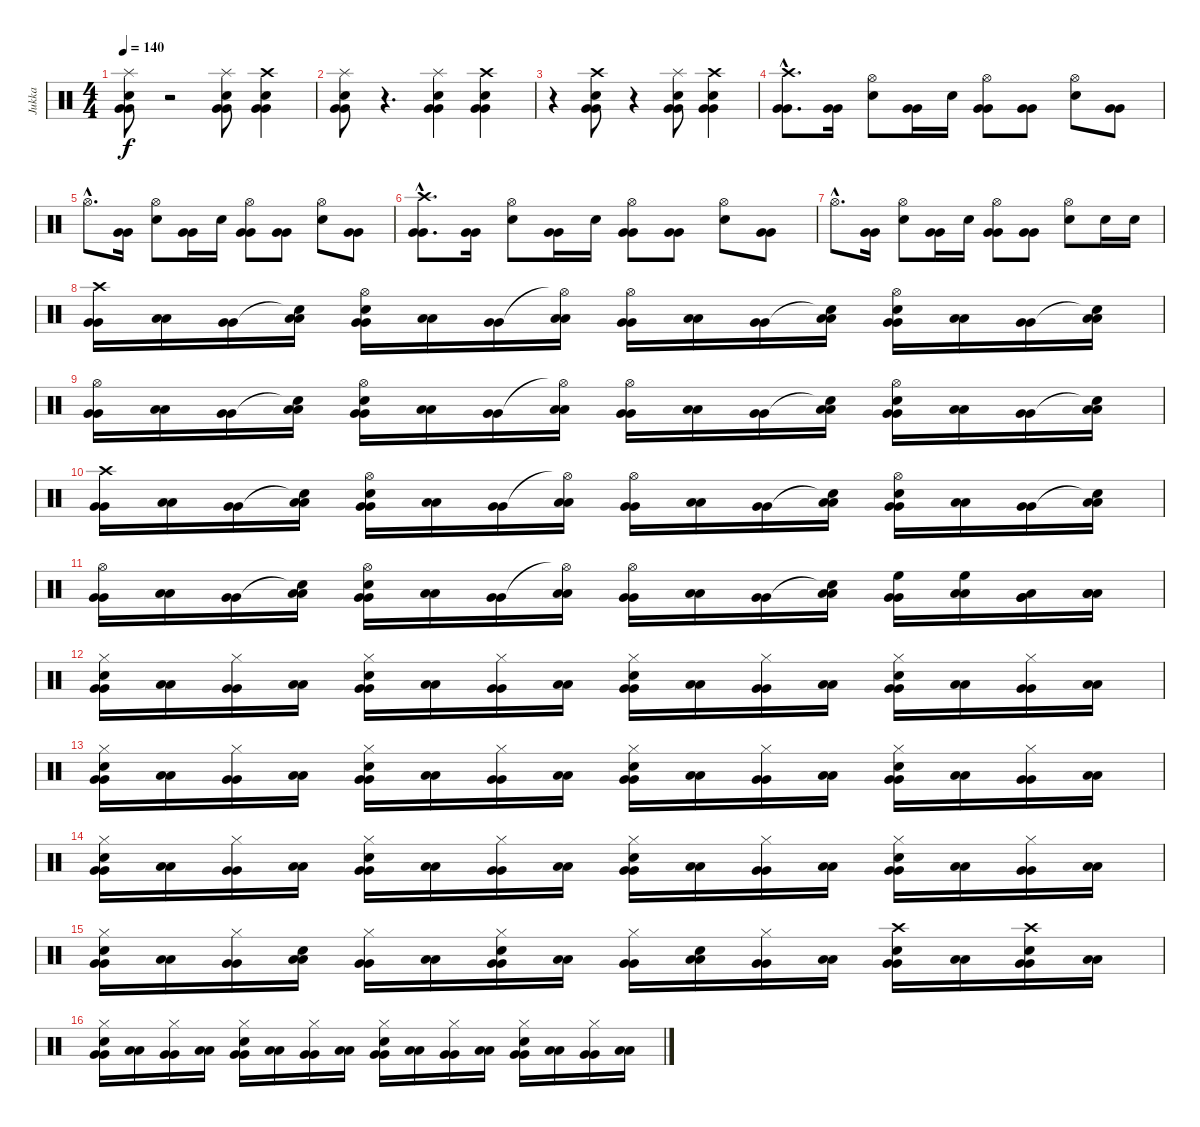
\track ("Jukka" "Jukka") {instrument percussion}
\staff {score}
\articulation defaults
\ts (4 4)
\tempo 140
\clef neutral
\ks c
("Splash (hit)" "Electric Snare (hit)" "Very Low Tom (hit)" "Very Low Tom (hit)").8{dy f} r.2 ("Splash (hit)" "Electric Snare (hit)" "Very Low Tom (hit)" "Very Low Tom (hit)").8 ("Crash high (hit)" "Electric Snare (hit)" "Very Low Tom (hit)" "Very Low Tom (hit)").4 |
("Splash (hit)" "Electric Snare (hit)" "Very Low Tom (hit)" "Very Low Tom (hit)").8 r.4{d} ("Splash (hit)" "Electric Snare (hit)" "Very Low Tom (hit)" "Very Low Tom (hit)").4 ("Crash high (hit)" "Electric Snare (hit)" "Very Low Tom (hit)" "Very Low Tom (hit)").4 |
r.4 ("Crash high (hit)" "Electric Snare (hit)" "Very Low Tom (hit)" "Very Low Tom (hit)").8 r.4 ("Splash (hit)" "Electric Snare (hit)" "Very Low Tom (hit)" "Very Low Tom (hit)").8 ("Crash high (hit)" "Electric Snare (hit)" "Very Low Tom (hit)" "Very Low Tom (hit)").4 |
("Crash high (hit)"{hac} "Very Low Tom (hit)"{hac} "Very Low Tom (hit)"{hac}).8{d} ("Very Low Tom (hit)" "Very Low Tom (hit)").16 ("Hi-Hat (open)" "Electric Snare (hit)").8 ("Very Low Tom (hit)" "Very Low Tom (hit)").16 "Electric Snare (hit)".16 ("Hi-Hat (open)" "Very Low Tom (hit)" "Very Low Tom (hit)").8 ("Very Low Tom (hit)" "Very Low Tom (hit)").8 ("Hi-Hat (open)" "Electric Snare (hit)").8 ("Very Low Tom (hit)" "Very Low Tom (hit)").8 |
"Hi-Hat (open)"{hac}.8{d} ("Very Low Tom (hit)" "Very Low Tom (hit)").16 ("Hi-Hat (open)" "Electric Snare (hit)").8 ("Very Low Tom (hit)" "Very Low Tom (hit)").16 "Electric Snare (hit)".16 ("Hi-Hat (open)" "Very Low Tom (hit)" "Very Low Tom (hit)").8 ("Very Low Tom (hit)" "Very Low Tom (hit)").8 ("Hi-Hat (open)" "Electric Snare (hit)").8 ("Very Low Tom (hit)" "Very Low Tom (hit)").8 |
("Crash high (hit)"{hac} "Very Low Tom (hit)"{hac} "Very Low Tom (hit)"{hac}).8{d} ("Very Low Tom (hit)" "Very Low Tom (hit)").16 ("Hi-Hat (open)" "Electric Snare (hit)").8 ("Very Low Tom (hit)" "Very Low Tom (hit)").16 "Electric Snare (hit)".16 ("Hi-Hat (open)" "Very Low Tom (hit)" "Very Low Tom (hit)").8 ("Very Low Tom (hit)" "Very Low Tom (hit)").8 ("Hi-Hat (open)" "Electric Snare (hit)").8 ("Very Low Tom (hit)" "Very Low Tom (hit)").8 |
"Hi-Hat (open)"{hac}.8{d} ("Very Low Tom (hit)" "Very Low Tom (hit)").16 ("Hi-Hat (open)" "Electric Snare (hit)").8 ("Very Low Tom (hit)" "Very Low Tom (hit)").16 "Electric Snare (hit)".16 ("Hi-Hat (open)" "Very Low Tom (hit)" "Very Low Tom (hit)").8 ("Very Low Tom (hit)" "Very Low Tom (hit)").8 ("Hi-Hat (open)" "Electric Snare (hit)").8 "Electric Snare (hit)".16 "Electric Snare (hit)".16 |
("Crash high (hit)" "Very Low Tom (hit)" "Very Low Tom (hit)").16 ("Low Floor Tom (hit)" "Low Floor Tom (hit)").16 ("Very Low Tom (hit)" "Very Low Tom (hit)").16 ("Snare (hit)"{t} "Low Floor Tom (hit)" "Low Floor Tom (hit)").16 ("Hi-Hat (open)" "Electric Snare (hit)" "Very Low Tom (hit)" "Very Low Tom (hit)").16 ("Low Floor Tom (hit)" "Low Floor Tom (hit)").16 ("Very Low Tom (hit)" "Very Low Tom (hit)").16 ("Hi-Hat (open)"{t} "Low Floor Tom (hit)" "Low Floor Tom (hit)").16 ("Hi-Hat (open)" "Very Low Tom (hit)" "Very Low Tom (hit)").16 ("Low Floor Tom (hit)" "Low Floor Tom (hit)").16 ("Very Low Tom (hit)" "Very Low Tom (hit)").16 ("Snare (hit)"{t} "Low Floor Tom (hit)" "Low Floor Tom (hit)").16 ("Hi-Hat (open)" "Electric Snare (hit)" "Very Low Tom (hit)" "Very Low Tom (hit)").16 ("Low Floor Tom (hit)" "Low Floor Tom (hit)").16 ("Very Low Tom (hit)" "Very Low Tom (hit)").16 ("Snare (hit)"{t} "Low Floor Tom (hit)" "Low Floor Tom (hit)").16 |
("Hi-Hat (open)" "Very Low Tom (hit)" "Very Low Tom (hit)").16 ("Low Floor Tom (hit)" "Low Floor Tom (hit)").16 ("Very Low Tom (hit)" "Very Low Tom (hit)").16 ("Snare (hit)"{t} "Low Floor Tom (hit)" "Low Floor Tom (hit)").16 ("Hi-Hat (open)" "Electric Snare (hit)" "Very Low Tom (hit)" "Very Low Tom (hit)").16 ("Low Floor Tom (hit)" "Low Floor Tom (hit)").16 ("Very Low Tom (hit)" "Very Low Tom (hit)").16 ("Hi-Hat (open)"{t} "Low Floor Tom (hit)" "Low Floor Tom (hit)").16 ("Hi-Hat (open)" "Very Low Tom (hit)" "Very Low Tom (hit)").16 ("Low Floor Tom (hit)" "Low Floor Tom (hit)").16 ("Very Low Tom (hit)" "Very Low Tom (hit)").16 ("Snare (hit)"{t} "Low Floor Tom (hit)" "Low Floor Tom (hit)").16 ("Hi-Hat (open)" "Electric Snare (hit)" "Very Low Tom (hit)" "Very Low Tom (hit)").16 ("Low Floor Tom (hit)" "Low Floor Tom (hit)").16 ("Very Low Tom (hit)" "Very Low Tom (hit)").16 ("Snare (hit)"{t} "Low Floor Tom (hit)" "Low Floor Tom (hit)").16 |
("Crash high (hit)" "Very Low Tom (hit)" "Very Low Tom (hit)").16 ("Low Floor Tom (hit)" "Low Floor Tom (hit)").16 ("Very Low Tom (hit)" "Very Low Tom (hit)").16 ("Snare (hit)"{t} "Low Floor Tom (hit)" "Low Floor Tom (hit)").16 ("Hi-Hat (open)" "Electric Snare (hit)" "Very Low Tom (hit)" "Very Low Tom (hit)").16 ("Low Floor Tom (hit)" "Low Floor Tom (hit)").16 ("Very Low Tom (hit)" "Very Low Tom (hit)").16 ("Hi-Hat (open)"{t} "Low Floor Tom (hit)" "Low Floor Tom (hit)").16 ("Hi-Hat (open)" "Very Low Tom (hit)" "Very Low Tom (hit)").16 ("Low Floor Tom (hit)" "Low Floor Tom (hit)").16 ("Very Low Tom (hit)" "Very Low Tom (hit)").16 ("Snare (hit)"{t} "Low Floor Tom (hit)" "Low Floor Tom (hit)").16 ("Hi-Hat (open)" "Electric Snare (hit)" "Very Low Tom (hit)" "Very Low Tom (hit)").16 ("Low Floor Tom (hit)" "Low Floor Tom (hit)").16 ("Very Low Tom (hit)" "Very Low Tom (hit)").16 ("Snare (hit)"{t} "Low Floor Tom (hit)" "Low Floor Tom (hit)").16 |
("Hi-Hat (open)" "Very Low Tom (hit)" "Very Low Tom (hit)").16 ("Low Floor Tom (hit)" "Low Floor Tom (hit)").16 ("Very Low Tom (hit)" "Very Low Tom (hit)").16 ("Snare (hit)"{t} "Low Floor Tom (hit)" "Low Floor Tom (hit)").16 ("Hi-Hat (open)" "Electric Snare (hit)" "Very Low Tom (hit)" "Very Low Tom (hit)").16 ("Low Floor Tom (hit)" "Low Floor Tom (hit)").16 ("Very Low Tom (hit)" "Very Low Tom (hit)").16 ("Hi-Hat (open)"{t} "Low Floor Tom (hit)" "Low Floor Tom (hit)").16 ("Hi-Hat (open)" "Very Low Tom (hit)" "Very Low Tom (hit)").16 ("Low Floor Tom (hit)" "Low Floor Tom (hit)").16 ("Very Low Tom (hit)" "Very Low Tom (hit)").16 ("Snare (hit)"{t} "Low Floor Tom (hit)" "Low Floor Tom (hit)").16 ("High Floor Tom (hit)" "Very Low Tom (hit)" "Very Low Tom (hit)").16 ("High Floor Tom (hit)" "Low Floor Tom (hit)" "Low Floor Tom (hit)").16 ("Low Tom (hit)" "Very Low Tom (hit)" "Very Low Tom (hit)").16 ("Low Tom (hit)" "Low Floor Tom (hit)" "Low Floor Tom (hit)").16 |
("Hi-Hat (closed)" "Electric Snare (hit)" "Very Low Tom (hit)" "Very Low Tom (hit)").16 ("Low Floor Tom (hit)" "Low Floor Tom (hit)").16 ("Hi-Hat (closed)" "Very Low Tom (hit)" "Very Low Tom (hit)").16 ("Low Floor Tom (hit)" "Low Floor Tom (hit)").16 ("Hi-Hat (closed)" "Electric Snare (hit)" "Very Low Tom (hit)" "Very Low Tom (hit)").16 ("Low Floor Tom (hit)" "Low Floor Tom (hit)").16 ("Hi-Hat (closed)" "Very Low Tom (hit)" "Very Low Tom (hit)").16 ("Low Floor Tom (hit)" "Low Floor Tom (hit)").16 ("Hi-Hat (closed)" "Electric Snare (hit)" "Very Low Tom (hit)" "Very Low Tom (hit)").16 ("Low Floor Tom (hit)" "Low Floor Tom (hit)").16 ("Hi-Hat (closed)" "Very Low Tom (hit)" "Very Low Tom (hit)").16 ("Low Floor Tom (hit)" "Low Floor Tom (hit)").16 ("Hi-Hat (closed)" "Electric Snare (hit)" "Very Low Tom (hit)" "Very Low Tom (hit)").16 ("Low Floor Tom (hit)" "Low Floor Tom (hit)").16 ("Hi-Hat (closed)" "Very Low Tom (hit)" "Very Low Tom (hit)").16 ("Low Floor Tom (hit)" "Low Floor Tom (hit)").16 |
("Hi-Hat (closed)" "Electric Snare (hit)" "Very Low Tom (hit)" "Very Low Tom (hit)").16 ("Low Floor Tom (hit)" "Low Floor Tom (hit)").16 ("Hi-Hat (closed)" "Very Low Tom (hit)" "Very Low Tom (hit)").16 ("Low Floor Tom (hit)" "Low Floor Tom (hit)").16 ("Hi-Hat (closed)" "Electric Snare (hit)" "Very Low Tom (hit)" "Very Low Tom (hit)").16 ("Low Floor Tom (hit)" "Low Floor Tom (hit)").16 ("Hi-Hat (closed)" "Very Low Tom (hit)" "Very Low Tom (hit)").16 ("Low Floor Tom (hit)" "Low Floor Tom (hit)").16 ("Hi-Hat (closed)" "Electric Snare (hit)" "Very Low Tom (hit)" "Very Low Tom (hit)").16 ("Low Floor Tom (hit)" "Low Floor Tom (hit)").16 ("Hi-Hat (closed)" "Very Low Tom (hit)" "Very Low Tom (hit)").16 ("Low Floor Tom (hit)" "Low Floor Tom (hit)").16 ("Hi-Hat (closed)" "Electric Snare (hit)" "Very Low Tom (hit)" "Very Low Tom (hit)").16 ("Low Floor Tom (hit)" "Low Floor Tom (hit)").16 ("Hi-Hat (closed)" "Very Low Tom (hit)" "Very Low Tom (hit)").16 ("Low Floor Tom (hit)" "Low Floor Tom (hit)").16 |
("Hi-Hat (closed)" "Electric Snare (hit)" "Very Low Tom (hit)" "Very Low Tom (hit)").16 ("Low Floor Tom (hit)" "Low Floor Tom (hit)").16 ("Hi-Hat (closed)" "Very Low Tom (hit)" "Very Low Tom (hit)").16 ("Low Floor Tom (hit)" "Low Floor Tom (hit)").16 ("Hi-Hat (closed)" "Electric Snare (hit)" "Very Low Tom (hit)" "Very Low Tom (hit)").16 ("Low Floor Tom (hit)" "Low Floor Tom (hit)").16 ("Hi-Hat (closed)" "Very Low Tom (hit)" "Very Low Tom (hit)").16 ("Low Floor Tom (hit)" "Low Floor Tom (hit)").16 ("Hi-Hat (closed)" "Electric Snare (hit)" "Very Low Tom (hit)" "Very Low Tom (hit)").16 ("Low Floor Tom (hit)" "Low Floor Tom (hit)").16 ("Hi-Hat (closed)" "Very Low Tom (hit)" "Very Low Tom (hit)").16 ("Low Floor Tom (hit)" "Low Floor Tom (hit)").16 ("Hi-Hat (closed)" "Electric Snare (hit)" "Very Low Tom (hit)" "Very Low Tom (hit)").16 ("Low Floor Tom (hit)" "Low Floor Tom (hit)").16 ("Hi-Hat (closed)" "Very Low Tom (hit)" "Very Low Tom (hit)").16 ("Low Floor Tom (hit)" "Low Floor Tom (hit)").16 |
("Hi-Hat (closed)" "Electric Snare (hit)" "Very Low Tom (hit)" "Very Low Tom (hit)").16 ("Low Floor Tom (hit)" "Low Floor Tom (hit)").16 ("Hi-Hat (closed)" "Very Low Tom (hit)" "Very Low Tom (hit)").16 ("Electric Snare (hit)" "Low Floor Tom (hit)" "Low Floor Tom (hit)").16 ("Hi-Hat (closed)" "Very Low Tom (hit)" "Very Low Tom (hit)").16 ("Low Floor Tom (hit)" "Low Floor Tom (hit)").16 ("Hi-Hat (closed)" "Electric Snare (hit)" "Very Low Tom (hit)" "Very Low Tom (hit)").16 ("Low Floor Tom (hit)" "Low Floor Tom (hit)").16 ("Hi-Hat (closed)" "Very Low Tom (hit)" "Very Low Tom (hit)").16 ("Electric Snare (hit)" "Low Floor Tom (hit)" "Low Floor Tom (hit)").16 ("Hi-Hat (closed)" "Very Low Tom (hit)" "Very Low Tom (hit)").16 ("Low Floor Tom (hit)" "Low Floor Tom (hit)").16 ("Crash high (hit)" "Electric Snare (hit)" "Very Low Tom (hit)" "Very Low Tom (hit)").16 ("Low Floor Tom (hit)" "Low Floor Tom (hit)").16 ("Crash high (hit)" "Electric Snare (hit)" "Very Low Tom (hit)" "Very Low Tom (hit)").16 ("Low Floor Tom (hit)" "Low Floor Tom (hit)").16 |
("Hi-Hat (closed)" "Electric Snare (hit)" "Very Low Tom (hit)" "Very Low Tom (hit)").16 ("Low Floor Tom (hit)" "Low Floor Tom (hit)").16 ("Hi-Hat (closed)" "Very Low Tom (hit)" "Very Low Tom (hit)").16 ("Low Floor Tom (hit)" "Low Floor Tom (hit)").16 ("Hi-Hat (closed)" "Electric Snare (hit)" "Very Low Tom (hit)" "Very Low Tom (hit)").16 ("Low Floor Tom (hit)" "Low Floor Tom (hit)").16 ("Hi-Hat (closed)" "Very Low Tom (hit)" "Very Low Tom (hit)").16 ("Low Floor Tom (hit)" "Low Floor Tom (hit)").16 ("Hi-Hat (closed)" "Electric Snare (hit)" "Very Low Tom (hit)" "Very Low Tom (hit)").16 ("Low Floor Tom (hit)" "Low Floor Tom (hit)").16 ("Hi-Hat (closed)" "Very Low Tom (hit)" "Very Low Tom (hit)").16 ("Low Floor Tom (hit)" "Low Floor Tom (hit)").16 ("Hi-Hat (closed)" "Electric Snare (hit)" "Very Low Tom (hit)" "Very Low Tom (hit)").16 ("Low Floor Tom (hit)" "Low Floor Tom (hit)").16 ("Hi-Hat (closed)" "Very Low Tom (hit)" "Very Low Tom (hit)").16 ("Low Floor Tom (hit)" "Low Floor Tom (hit)").16
